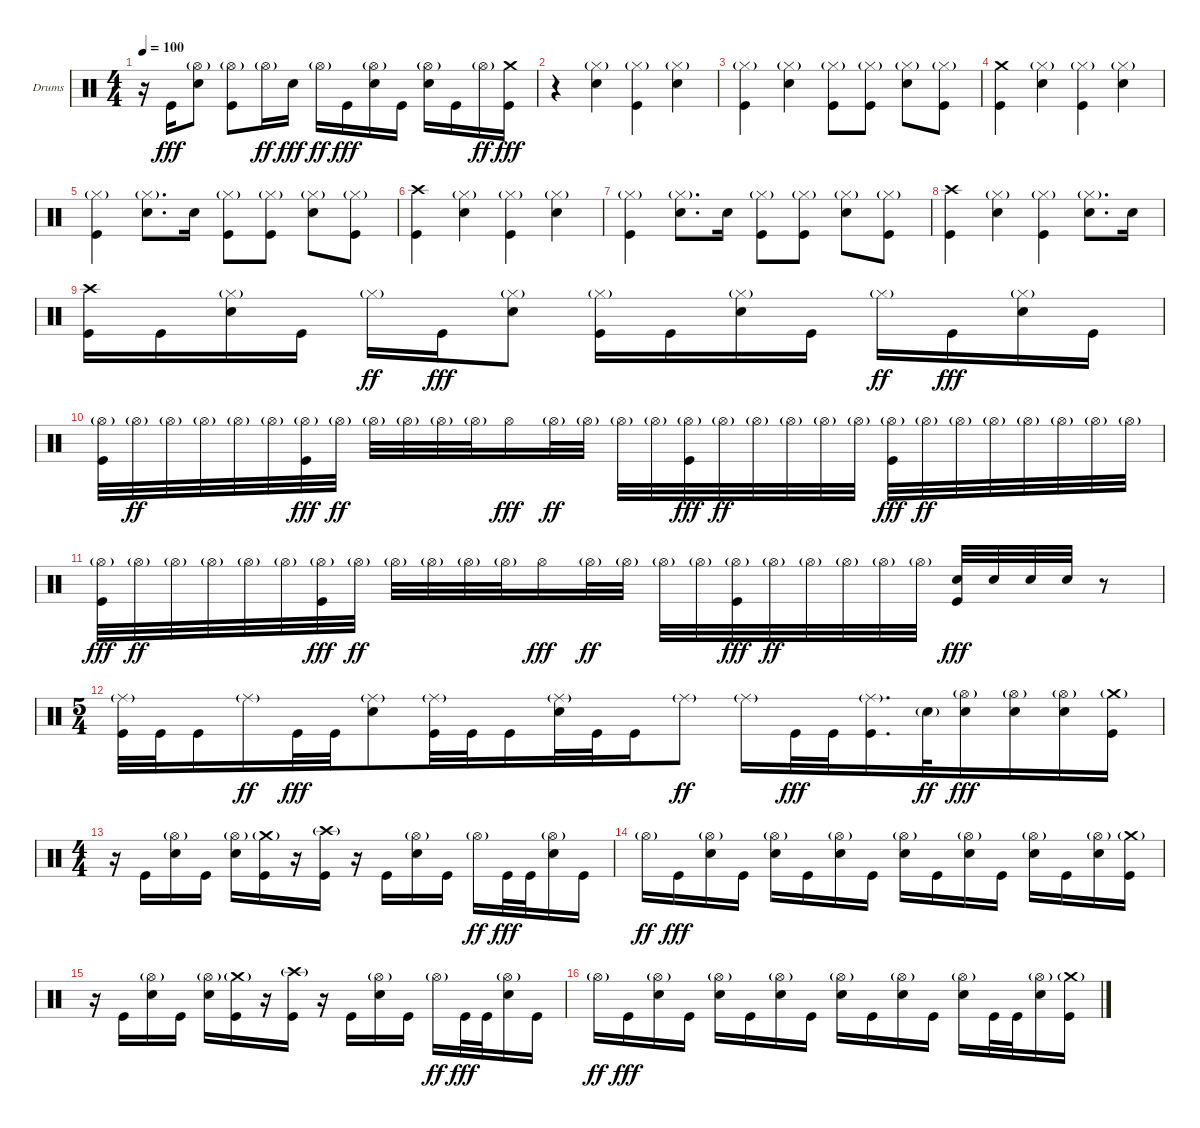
\bracketExtendMode groupsimilarinstruments
\firstSystemTrackNameOrientation horizontal
\otherSystemsTrackNameOrientation horizontal
\track ("Drumkit" "Drums") {instrument percussion}
\staff {score}
\articulation defaults
\ts (4 4)
\tempo 100
\clef neutral
\ks c
r.16{dy fff} "Kick (hit)".16 ("Hi-Hat (open)"{g} "Snare (hit) 2").8 ("Hi-Hat (open)"{g} "Kick (hit)").8 "Hi-Hat (open)"{g}.16{dy ff} "Snare (hit) 2".16{dy fff} "Hi-Hat (open)"{g}.16{dy ff} "Kick (hit)".16{dy fff} ("Hi-Hat (open)"{g} "Snare (hit) 2").16 "Kick (hit)".16 ("Hi-Hat (open)"{g} "Snare (hit) 2").16 "Kick (hit)".16 "Hi-Hat (open)"{g}.16{dy ff} ("Crash medium (hit)" "Kick (hit)").16{dy fff} |
r.4 ("Hi-Hat (closed)"{g} "Snare (hit) 2").4 ("Hi-Hat (closed)"{g} "Kick (hit)").4 ("Hi-Hat (closed)"{g} "Snare (hit) 2").4 |
("Hi-Hat (closed)"{g} "Kick (hit)").4 ("Hi-Hat (closed)"{g} "Snare (hit) 2").4 ("Hi-Hat (closed)"{g} "Kick (hit)").8 ("Hi-Hat (closed)"{g} "Kick (hit)").8 ("Hi-Hat (closed)"{g} "Snare (hit) 2").8 ("Hi-Hat (closed)"{g} "Kick (hit)").8 |
("Crash medium (hit)" "Kick (hit)").4 ("Hi-Hat (closed)"{g} "Snare (hit) 2").4 ("Hi-Hat (closed)"{g} "Kick (hit)").4 ("Hi-Hat (closed)"{g} "Snare (hit) 2").4 |
("Hi-Hat (closed)"{g} "Kick (hit)").4 ("Hi-Hat (closed)"{g} "Snare (hit) 2").8{d} "Snare (hit) 2".16 ("Hi-Hat (closed)"{g} "Kick (hit)").8 ("Hi-Hat (closed)"{g} "Kick (hit)").8 ("Hi-Hat (closed)"{g} "Snare (hit) 2").8 ("Hi-Hat (closed)"{g} "Kick (hit)").8 |
("Crash high (hit)" "Kick (hit)").4 ("Hi-Hat (closed)"{g} "Snare (hit) 2").4 ("Hi-Hat (closed)"{g} "Kick (hit)").4 ("Hi-Hat (closed)"{g} "Snare (hit) 2").4 |
("Hi-Hat (closed)"{g} "Kick (hit)").4 ("Hi-Hat (closed)"{g} "Snare (hit) 2").8{d} "Snare (hit) 2".16 ("Hi-Hat (closed)"{g} "Kick (hit)").8 ("Hi-Hat (closed)"{g} "Kick (hit)").8 ("Hi-Hat (closed)"{g} "Snare (hit) 2").8 ("Hi-Hat (closed)"{g} "Kick (hit)").8 |
("Crash high (hit)" "Kick (hit)").4 ("Hi-Hat (closed)"{g} "Snare (hit) 2").4 ("Hi-Hat (closed)"{g} "Kick (hit)").4 ("Hi-Hat (closed)"{g} "Snare (hit) 2").8{d} "Snare (hit) 2".16 |
("Crash high (hit)" "Kick (hit)").16 "Kick (hit)".16 ("Hi-Hat (closed)"{g} "Snare (hit) 2").16 "Kick (hit)".16 "Hi-Hat (closed)"{g}.16{dy ff} "Kick (hit)".16{dy fff} ("Hi-Hat (closed)"{g} "Snare (hit) 2").8 ("Hi-Hat (closed)"{g} "Kick (hit)").16 "Kick (hit)".16 ("Hi-Hat (closed)"{g} "Snare (hit) 2").16 "Kick (hit)".16 "Hi-Hat (closed)"{g}.16{dy ff} "Kick (hit)".16{dy fff} ("Hi-Hat (closed)"{g} "Snare (hit) 2").16 "Kick (hit)".16 |
("Hi-Hat (open)"{g} "Kick (hit)").32 "Hi-Hat (open)"{g}.32{dy ff} "Hi-Hat (open)"{g}.32 "Hi-Hat (open)"{g}.32 "Hi-Hat (open)"{g}.32 "Hi-Hat (open)"{g}.32 ("Hi-Hat (open)"{g} "Kick (hit)").32{dy fff} "Hi-Hat (open)"{g}.32{dy ff} "Hi-Hat (open)"{g}.32 "Hi-Hat (open)"{g}.32 "Hi-Hat (open)"{g}.32 "Hi-Hat (open)"{g}.32 "Hi-Hat (open)".16{dy fff} "Hi-Hat (open)"{g}.32{dy ff} "Hi-Hat (open)"{g}.32 "Hi-Hat (open)"{g}.32 "Hi-Hat (open)"{g}.32 ("Hi-Hat (open)"{g} "Kick (hit)").32{dy fff} "Hi-Hat (open)"{g}.32{dy ff} "Hi-Hat (open)"{g}.32 "Hi-Hat (open)"{g}.32 "Hi-Hat (open)"{g}.32 "Hi-Hat (open)"{g}.32 ("Hi-Hat (open)"{g} "Kick (hit)").32{dy fff} "Hi-Hat (open)"{g}.32{dy ff} "Hi-Hat (open)"{g}.32 "Hi-Hat (open)"{g}.32 "Hi-Hat (open)"{g}.32 "Hi-Hat (open)"{g}.32 "Hi-Hat (open)"{g}.32 "Hi-Hat (open)"{g}.32 |
("Hi-Hat (open)"{g} "Kick (hit)").32{dy fff} "Hi-Hat (open)"{g}.32{dy ff} "Hi-Hat (open)"{g}.32 "Hi-Hat (open)"{g}.32 "Hi-Hat (open)"{g}.32 "Hi-Hat (open)"{g}.32 ("Hi-Hat (open)"{g} "Kick (hit)").32{dy fff} "Hi-Hat (open)"{g}.32{dy ff} "Hi-Hat (open)"{g}.32 "Hi-Hat (open)"{g}.32 "Hi-Hat (open)"{g}.32 "Hi-Hat (open)"{g}.32 "Hi-Hat (open)".16{dy fff} "Hi-Hat (open)"{g}.32{dy ff} "Hi-Hat (open)"{g}.32 "Hi-Hat (open)"{g}.32 "Hi-Hat (open)"{g}.32 ("Hi-Hat (open)"{g} "Kick (hit)").32{dy fff} "Hi-Hat (open)"{g}.32{dy ff} "Hi-Hat (open)"{g}.32 "Hi-Hat (open)"{g}.32 "Hi-Hat (open)"{g}.32 "Hi-Hat (open)"{g}.32 ("Snare (hit) 2" "Kick (hit)").32{dy fff} "Snare (hit) 2".32 "Snare (hit) 2".32 "Snare (hit) 2".32 r.8 |
\ts (5 4)
\beaming (8 6 4)
("Ride (middle)"{g} "Kick (hit)").32 "Kick (hit)".32 "Kick (hit)".16 "Ride (middle)"{g}.16{dy ff} "Kick (hit)".32{dy fff} "Kick (hit)".32 ("Ride (middle)"{g} "Snare (hit) 2").8 ("Ride (middle)"{g} "Kick (hit)").32 "Kick (hit)".32 "Kick (hit)".16 ("Ride (middle)"{g} "Snare (hit) 2").32 "Kick (hit)".32 "Kick (hit)".16 "Ride (middle)"{g}.8{dy ff} "Ride (middle)"{g}.16 "Kick (hit)".32{dy fff} "Kick (hit)".32 ("Ride (middle)"{g} "Kick (hit)").16{d} "Snare (hit) 2"{g}.32{dy ff} ("Hi-Hat (open)"{g} "Snare (hit) 2").16{dy fff} ("Hi-Hat (open)"{g} "Snare (hit) 2").16 ("Hi-Hat (open)"{g} "Snare (hit) 2").16 ("Crash medium (hit)"{g} "Kick (hit)").16 |
\ts (4 4)
\beaming (8 2 2 2 2)
r.16 "Kick (hit)".16 ("Hi-Hat (open)"{g} "Snare (hit) 2").16 "Kick (hit)".16 ("Hi-Hat (open)"{g} "Snare (hit) 2").16 ("Crash medium (hit)"{g} "Kick (hit)").16 r.16 ("Crash high (hit)"{g} "Kick (hit)").16 r.16 "Kick (hit)".16 ("Hi-Hat (open)"{g} "Snare (hit) 2").16 "Kick (hit)".16 "Hi-Hat (open)"{g}.16{dy ff} "Kick (hit)".32{dy fff} "Kick (hit)".32 ("Hi-Hat (open)"{g} "Snare (hit) 2").16 "Kick (hit)".16 |
"Hi-Hat (open)"{g}.16{dy ff} "Kick (hit)".16{dy fff} ("Hi-Hat (open)"{g} "Snare (hit) 2").16 "Kick (hit)".16 ("Hi-Hat (open)"{g} "Snare (hit) 2").16 "Kick (hit)".16 ("Hi-Hat (open)"{g} "Snare (hit) 2").16 "Kick (hit)".16 ("Hi-Hat (open)"{g} "Snare (hit) 2").16 "Kick (hit)".16 ("Hi-Hat (open)"{g} "Snare (hit) 2").16 "Kick (hit)".16 ("Hi-Hat (open)"{g} "Snare (hit) 2").16 "Kick (hit)".16 ("Hi-Hat (open)"{g} "Snare (hit) 2").16 ("Crash medium (hit)"{g} "Kick (hit)").16 |
r.16 "Kick (hit)".16 ("Hi-Hat (open)"{g} "Snare (hit) 2").16 "Kick (hit)".16 ("Hi-Hat (open)"{g} "Snare (hit) 2").16 ("Crash medium (hit)"{g} "Kick (hit)").16 r.16 ("Crash high (hit)"{g} "Kick (hit)").16 r.16 "Kick (hit)".16 ("Hi-Hat (open)"{g} "Snare (hit) 2").16 "Kick (hit)".16 "Hi-Hat (open)"{g}.16{dy ff} "Kick (hit)".32{dy fff} "Kick (hit)".32 ("Hi-Hat (open)"{g} "Snare (hit) 2").16 "Kick (hit)".16 |
"Hi-Hat (open)"{g}.16{dy ff} "Kick (hit)".16{dy fff} ("Hi-Hat (open)"{g} "Snare (hit) 2").16 "Kick (hit)".16 ("Hi-Hat (open)"{g} "Snare (hit) 2").16 "Kick (hit)".16 ("Hi-Hat (open)"{g} "Snare (hit) 2").16 "Kick (hit)".16 ("Hi-Hat (open)"{g} "Snare (hit) 2").16 "Kick (hit)".16 ("Hi-Hat (open)"{g} "Snare (hit) 2").16 "Kick (hit)".16 ("Hi-Hat (open)"{g} "Snare (hit) 2").16 "Kick (hit)".32 "Kick (hit)".32 ("Hi-Hat (open)"{g} "Snare (hit) 2").16 ("Crash medium (hit)"{g} "Kick (hit)").16
